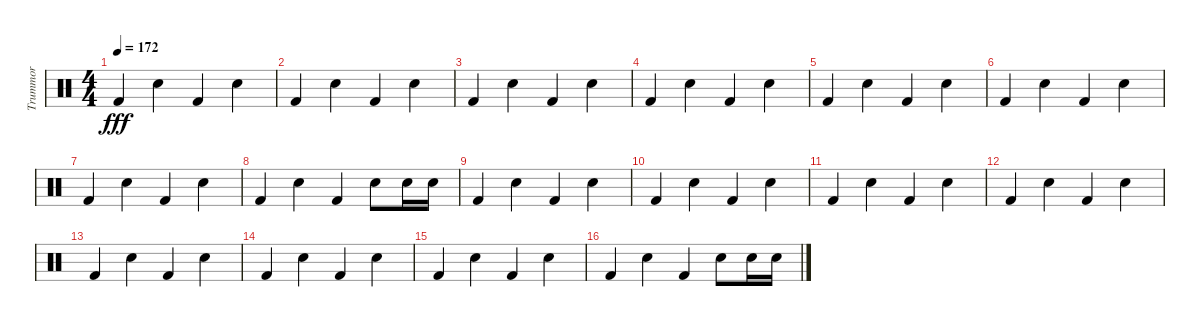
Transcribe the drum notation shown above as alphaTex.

\track ("Trummor" "Trummor") {instrument percussion}
\staff {score}
\articulation defaults
\ts (4 4)
\tempo 172
\clef neutral
\ks c "Kick (hit) 2".4{dy fff} "Snare (hit) 2".4 "Kick (hit) 2".4 "Snare (hit) 2".4
|
"Kick (hit) 2".4 "Snare (hit) 2".4 "Kick (hit) 2".4 "Snare (hit) 2".4 |
"Kick (hit) 2".4 "Snare (hit) 2".4 "Kick (hit) 2".4 "Snare (hit) 2".4 |
"Kick (hit) 2".4 "Snare (hit) 2".4 "Kick (hit) 2".4 "Snare (hit) 2".4 |
"Kick (hit) 2".4 "Snare (hit) 2".4 "Kick (hit) 2".4 "Snare (hit) 2".4 |
"Kick (hit) 2".4 "Snare (hit) 2".4 "Kick (hit) 2".4 "Snare (hit) 2".4 |
"Kick (hit) 2".4 "Snare (hit) 2".4 "Kick (hit) 2".4 "Snare (hit) 2".4 |
"Kick (hit) 2".4 "Snare (hit) 2".4 "Kick (hit) 2".4 "Snare (hit) 2".8 "Snare (hit) 2".16 "Snare (hit) 2".16 |
"Kick (hit) 2".4 "Snare (hit) 2".4 "Kick (hit) 2".4 "Snare (hit) 2".4 |
"Kick (hit) 2".4 "Snare (hit) 2".4 "Kick (hit) 2".4 "Snare (hit) 2".4 |
"Kick (hit) 2".4 "Snare (hit) 2".4 "Kick (hit) 2".4 "Snare (hit) 2".4 |
"Kick (hit) 2".4 "Snare (hit) 2".4 "Kick (hit) 2".4 "Snare (hit) 2".4 |
"Kick (hit) 2".4 "Snare (hit) 2".4 "Kick (hit) 2".4 "Snare (hit) 2".4 |
"Kick (hit) 2".4 "Snare (hit) 2".4 "Kick (hit) 2".4 "Snare (hit) 2".4 |
"Kick (hit) 2".4 "Snare (hit) 2".4 "Kick (hit) 2".4 "Snare (hit) 2".4 |
"Kick (hit) 2".4 "Snare (hit) 2".4 "Kick (hit) 2".4 "Snare (hit) 2".8 "Snare (hit) 2".16 "Snare (hit) 2".16
